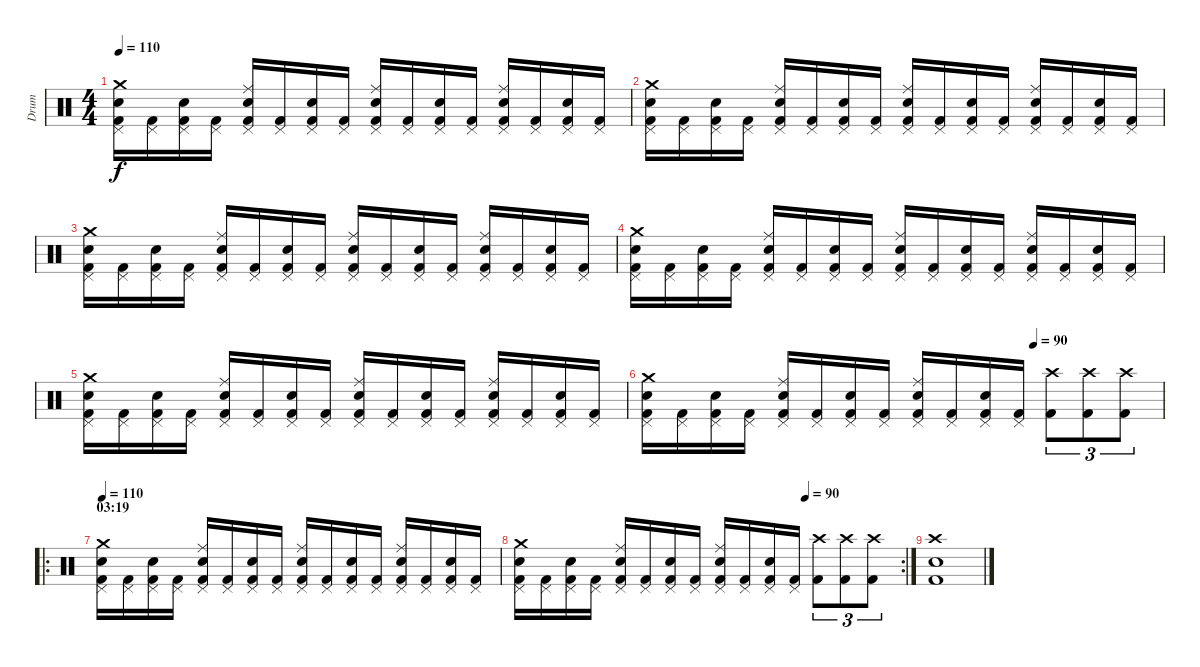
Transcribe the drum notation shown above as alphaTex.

\track ("Drum" "Drum") {instrument percussion}
\staff {score}
\articulation defaults
\ts (4 4)
\tempo 110
\clef neutral
\ks c
("Crash medium (hit)" "Pedal Hi-Hat (hit)" "Snare (hit) 2" "Kick (hit) 2").16{dy f} ("Pedal Hi-Hat (hit)" "Kick (hit) 2").16 ("Pedal Hi-Hat (hit)" "Snare (hit) 2" "Kick (hit) 2").16 ("Pedal Hi-Hat (hit)" "Kick (hit) 2").16 ("Ride (middle)" "Pedal Hi-Hat (hit)" "Snare (hit) 2" "Kick (hit) 2").16 ("Pedal Hi-Hat (hit)" "Kick (hit) 2").16 ("Pedal Hi-Hat (hit)" "Snare (hit) 2" "Kick (hit) 2").16 ("Pedal Hi-Hat (hit)" "Kick (hit) 2").16 ("Ride (middle)" "Pedal Hi-Hat (hit)" "Snare (hit) 2" "Kick (hit) 2").16 ("Pedal Hi-Hat (hit)" "Kick (hit) 2").16 ("Pedal Hi-Hat (hit)" "Snare (hit) 2" "Kick (hit) 2").16 ("Pedal Hi-Hat (hit)" "Kick (hit) 2").16 ("Ride (middle)" "Pedal Hi-Hat (hit)" "Snare (hit) 2" "Kick (hit) 2").16 ("Pedal Hi-Hat (hit)" "Kick (hit) 2").16 ("Pedal Hi-Hat (hit)" "Snare (hit) 2" "Kick (hit) 2").16 ("Pedal Hi-Hat (hit)" "Kick (hit) 2").16 |
("Crash medium (hit)" "Pedal Hi-Hat (hit)" "Snare (hit) 2" "Kick (hit) 2").16 ("Pedal Hi-Hat (hit)" "Kick (hit) 2").16 ("Pedal Hi-Hat (hit)" "Snare (hit) 2" "Kick (hit) 2").16 ("Pedal Hi-Hat (hit)" "Kick (hit) 2").16 ("Ride (middle)" "Pedal Hi-Hat (hit)" "Snare (hit) 2" "Kick (hit) 2").16 ("Pedal Hi-Hat (hit)" "Kick (hit) 2").16 ("Pedal Hi-Hat (hit)" "Snare (hit) 2" "Kick (hit) 2").16 ("Pedal Hi-Hat (hit)" "Kick (hit) 2").16 ("Ride (middle)" "Pedal Hi-Hat (hit)" "Snare (hit) 2" "Kick (hit) 2").16 ("Pedal Hi-Hat (hit)" "Kick (hit) 2").16 ("Pedal Hi-Hat (hit)" "Snare (hit) 2" "Kick (hit) 2").16 ("Pedal Hi-Hat (hit)" "Kick (hit) 2").16 ("Ride (middle)" "Pedal Hi-Hat (hit)" "Snare (hit) 2" "Kick (hit) 2").16 ("Pedal Hi-Hat (hit)" "Kick (hit) 2").16 ("Pedal Hi-Hat (hit)" "Snare (hit) 2" "Kick (hit) 2").16 ("Pedal Hi-Hat (hit)" "Kick (hit) 2").16 |
("Crash medium (hit)" "Pedal Hi-Hat (hit)" "Snare (hit) 2" "Kick (hit) 2").16 ("Pedal Hi-Hat (hit)" "Kick (hit) 2").16 ("Pedal Hi-Hat (hit)" "Snare (hit) 2" "Kick (hit) 2").16 ("Pedal Hi-Hat (hit)" "Kick (hit) 2").16 ("Ride (middle)" "Pedal Hi-Hat (hit)" "Snare (hit) 2" "Kick (hit) 2").16 ("Pedal Hi-Hat (hit)" "Kick (hit) 2").16 ("Pedal Hi-Hat (hit)" "Snare (hit) 2" "Kick (hit) 2").16 ("Pedal Hi-Hat (hit)" "Kick (hit) 2").16 ("Ride (middle)" "Pedal Hi-Hat (hit)" "Snare (hit) 2" "Kick (hit) 2").16 ("Pedal Hi-Hat (hit)" "Kick (hit) 2").16 ("Pedal Hi-Hat (hit)" "Snare (hit) 2" "Kick (hit) 2").16 ("Pedal Hi-Hat (hit)" "Kick (hit) 2").16 ("Ride (middle)" "Pedal Hi-Hat (hit)" "Snare (hit) 2" "Kick (hit) 2").16 ("Pedal Hi-Hat (hit)" "Kick (hit) 2").16 ("Pedal Hi-Hat (hit)" "Snare (hit) 2" "Kick (hit) 2").16 ("Pedal Hi-Hat (hit)" "Kick (hit) 2").16 |
("Crash medium (hit)" "Pedal Hi-Hat (hit)" "Snare (hit) 2" "Kick (hit) 2").16 ("Pedal Hi-Hat (hit)" "Kick (hit) 2").16 ("Pedal Hi-Hat (hit)" "Snare (hit) 2" "Kick (hit) 2").16 ("Pedal Hi-Hat (hit)" "Kick (hit) 2").16 ("Ride (middle)" "Pedal Hi-Hat (hit)" "Snare (hit) 2" "Kick (hit) 2").16 ("Pedal Hi-Hat (hit)" "Kick (hit) 2").16 ("Pedal Hi-Hat (hit)" "Snare (hit) 2" "Kick (hit) 2").16 ("Pedal Hi-Hat (hit)" "Kick (hit) 2").16 ("Ride (middle)" "Pedal Hi-Hat (hit)" "Snare (hit) 2" "Kick (hit) 2").16 ("Pedal Hi-Hat (hit)" "Kick (hit) 2").16 ("Pedal Hi-Hat (hit)" "Snare (hit) 2" "Kick (hit) 2").16 ("Pedal Hi-Hat (hit)" "Kick (hit) 2").16 ("Ride (middle)" "Pedal Hi-Hat (hit)" "Snare (hit) 2" "Kick (hit) 2").16 ("Pedal Hi-Hat (hit)" "Kick (hit) 2").16 ("Pedal Hi-Hat (hit)" "Snare (hit) 2" "Kick (hit) 2").16 ("Pedal Hi-Hat (hit)" "Kick (hit) 2").16 |
("Crash medium (hit)" "Pedal Hi-Hat (hit)" "Snare (hit) 2" "Kick (hit) 2").16 ("Pedal Hi-Hat (hit)" "Kick (hit) 2").16 ("Pedal Hi-Hat (hit)" "Snare (hit) 2" "Kick (hit) 2").16 ("Pedal Hi-Hat (hit)" "Kick (hit) 2").16 ("Ride (middle)" "Pedal Hi-Hat (hit)" "Snare (hit) 2" "Kick (hit) 2").16 ("Pedal Hi-Hat (hit)" "Kick (hit) 2").16 ("Pedal Hi-Hat (hit)" "Snare (hit) 2" "Kick (hit) 2").16 ("Pedal Hi-Hat (hit)" "Kick (hit) 2").16 ("Ride (middle)" "Pedal Hi-Hat (hit)" "Snare (hit) 2" "Kick (hit) 2").16 ("Pedal Hi-Hat (hit)" "Kick (hit) 2").16 ("Pedal Hi-Hat (hit)" "Snare (hit) 2" "Kick (hit) 2").16 ("Pedal Hi-Hat (hit)" "Kick (hit) 2").16 ("Ride (middle)" "Pedal Hi-Hat (hit)" "Snare (hit) 2" "Kick (hit) 2").16 ("Pedal Hi-Hat (hit)" "Kick (hit) 2").16 ("Pedal Hi-Hat (hit)" "Snare (hit) 2" "Kick (hit) 2").16 ("Pedal Hi-Hat (hit)" "Kick (hit) 2").16 |
\tempo (90 0.75)
("Crash medium (hit)" "Pedal Hi-Hat (hit)" "Snare (hit) 2" "Kick (hit) 2").16 ("Pedal Hi-Hat (hit)" "Kick (hit) 2").16 ("Pedal Hi-Hat (hit)" "Snare (hit) 2" "Kick (hit) 2").16 ("Pedal Hi-Hat (hit)" "Kick (hit) 2").16 ("Ride (middle)" "Pedal Hi-Hat (hit)" "Snare (hit) 2" "Kick (hit) 2").16 ("Pedal Hi-Hat (hit)" "Kick (hit) 2").16 ("Pedal Hi-Hat (hit)" "Snare (hit) 2" "Kick (hit) 2").16 ("Pedal Hi-Hat (hit)" "Kick (hit) 2").16 ("Ride (middle)" "Pedal Hi-Hat (hit)" "Snare (hit) 2" "Kick (hit) 2").16 ("Pedal Hi-Hat (hit)" "Kick (hit) 2").16 ("Pedal Hi-Hat (hit)" "Snare (hit) 2" "Kick (hit) 2").16 ("Pedal Hi-Hat (hit)" "Kick (hit) 2").16 ("Crash high (hit)" "Kick (hit) 2").8{tu (3 2)} ("Crash high (hit)" "Kick (hit) 2").8{tu (3 2)} ("Crash high (hit)" "Kick (hit) 2").8{tu (3 2)} |
\ro
\section ("" "03:19")
\tempo 110
("Crash medium (hit)" "Pedal Hi-Hat (hit)" "Snare (hit) 2" "Kick (hit) 2").16 ("Pedal Hi-Hat (hit)" "Kick (hit) 2").16 ("Pedal Hi-Hat (hit)" "Snare (hit) 2" "Kick (hit) 2").16 ("Pedal Hi-Hat (hit)" "Kick (hit) 2").16 ("Ride (middle)" "Pedal Hi-Hat (hit)" "Snare (hit) 2" "Kick (hit) 2").16 ("Pedal Hi-Hat (hit)" "Kick (hit) 2").16 ("Pedal Hi-Hat (hit)" "Snare (hit) 2" "Kick (hit) 2").16 ("Pedal Hi-Hat (hit)" "Kick (hit) 2").16 ("Ride (middle)" "Pedal Hi-Hat (hit)" "Snare (hit) 2" "Kick (hit) 2").16 ("Pedal Hi-Hat (hit)" "Kick (hit) 2").16 ("Pedal Hi-Hat (hit)" "Snare (hit) 2" "Kick (hit) 2").16 ("Pedal Hi-Hat (hit)" "Kick (hit) 2").16 ("Ride (middle)" "Pedal Hi-Hat (hit)" "Snare (hit) 2" "Kick (hit) 2").16 ("Pedal Hi-Hat (hit)" "Kick (hit) 2").16 ("Pedal Hi-Hat (hit)" "Snare (hit) 2" "Kick (hit) 2").16 ("Pedal Hi-Hat (hit)" "Kick (hit) 2").16 |
\rc 2
\tempo (90 0.75)
("Crash medium (hit)" "Pedal Hi-Hat (hit)" "Snare (hit) 2" "Kick (hit) 2").16 ("Pedal Hi-Hat (hit)" "Kick (hit) 2").16 ("Pedal Hi-Hat (hit)" "Snare (hit) 2" "Kick (hit) 2").16 ("Pedal Hi-Hat (hit)" "Kick (hit) 2").16 ("Ride (middle)" "Pedal Hi-Hat (hit)" "Snare (hit) 2" "Kick (hit) 2").16 ("Pedal Hi-Hat (hit)" "Kick (hit) 2").16 ("Pedal Hi-Hat (hit)" "Snare (hit) 2" "Kick (hit) 2").16 ("Pedal Hi-Hat (hit)" "Kick (hit) 2").16 ("Ride (middle)" "Pedal Hi-Hat (hit)" "Snare (hit) 2" "Kick (hit) 2").16 ("Pedal Hi-Hat (hit)" "Kick (hit) 2").16 ("Pedal Hi-Hat (hit)" "Snare (hit) 2" "Kick (hit) 2").16 ("Pedal Hi-Hat (hit)" "Kick (hit) 2").16 ("Crash high (hit)" "Kick (hit) 2").8{tu (3 2)} ("Crash high (hit)" "Kick (hit) 2").8{tu (3 2)} ("Crash high (hit)" "Kick (hit) 2").8{tu (3 2)} |
("Kick (hit) 2" "Snare (hit) 2" "Crash high (hit)").1
